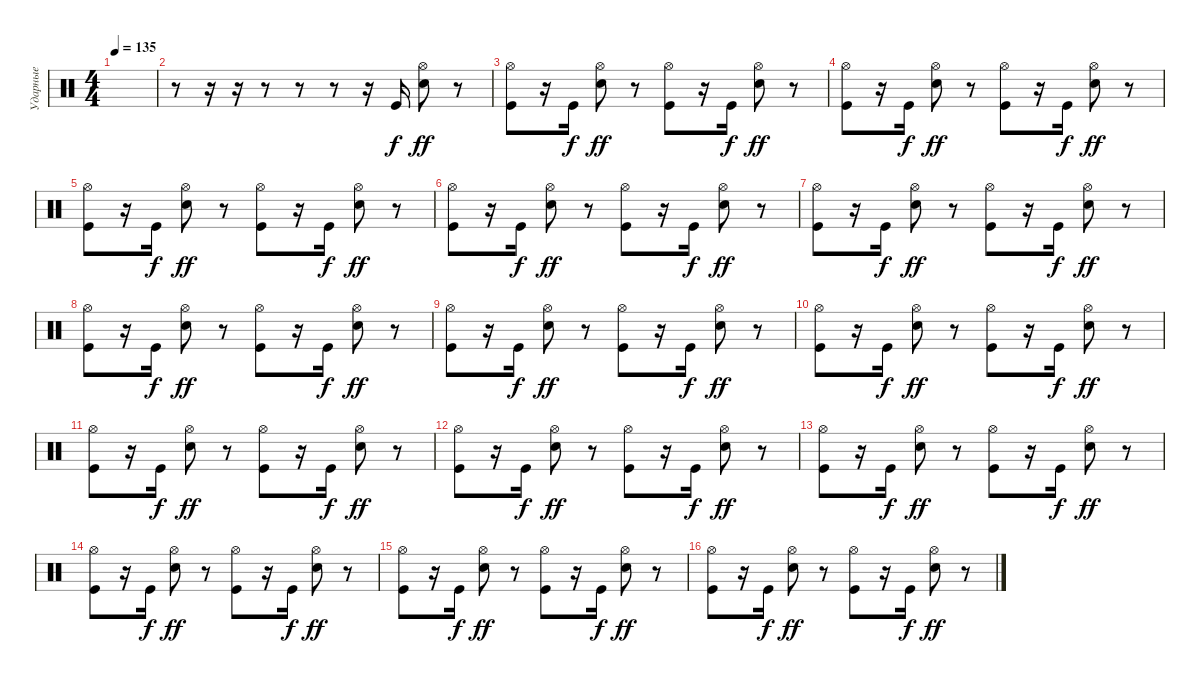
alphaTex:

\track ("Ударные" "Ударные") {instrument percussion}
\staff {score}
\articulation defaults
\ts (4 4)
\tempo 135
\clef neutral
\ks c
|
r.8 r.16 r.16 r.8 r.8 r.8 r.16 "Kick (hit)".16 ("Electric Snare (hit)" "Hi-Hat (open)").8{dy ff} r.8 |
("Kick (hit)" "Hi-Hat (open)").8 r.16 "Kick (hit)".16{dy f} ("Electric Snare (hit)" "Hi-Hat (open)").8{dy ff} r.8 ("Kick (hit)" "Hi-Hat (open)").8 r.16 "Kick (hit)".16{dy f} ("Electric Snare (hit)" "Hi-Hat (open)").8{dy ff} r.8 |
("Kick (hit)" "Hi-Hat (open)").8 r.16 "Kick (hit)".16{dy f} ("Electric Snare (hit)" "Hi-Hat (open)").8{dy ff} r.8 ("Kick (hit)" "Hi-Hat (open)").8 r.16 "Kick (hit)".16{dy f} ("Electric Snare (hit)" "Hi-Hat (open)").8{dy ff} r.8 |
("Kick (hit)" "Hi-Hat (open)").8 r.16 "Kick (hit)".16{dy f} ("Electric Snare (hit)" "Hi-Hat (open)").8{dy ff} r.8 ("Kick (hit)" "Hi-Hat (open)").8 r.16 "Kick (hit)".16{dy f} ("Electric Snare (hit)" "Hi-Hat (open)").8{dy ff} r.8 |
("Kick (hit)" "Hi-Hat (open)").8 r.16 "Kick (hit)".16{dy f} ("Electric Snare (hit)" "Hi-Hat (open)").8{dy ff} r.8 ("Kick (hit)" "Hi-Hat (open)").8 r.16 "Kick (hit)".16{dy f} ("Electric Snare (hit)" "Hi-Hat (open)").8{dy ff} r.8 |
("Kick (hit)" "Hi-Hat (open)").8 r.16 "Kick (hit)".16{dy f} ("Electric Snare (hit)" "Hi-Hat (open)").8{dy ff} r.8 ("Kick (hit)" "Hi-Hat (open)").8 r.16 "Kick (hit)".16{dy f} ("Electric Snare (hit)" "Hi-Hat (open)").8{dy ff} r.8 |
("Kick (hit)" "Hi-Hat (open)").8 r.16 "Kick (hit)".16{dy f} ("Electric Snare (hit)" "Hi-Hat (open)").8{dy ff} r.8 ("Kick (hit)" "Hi-Hat (open)").8 r.16 "Kick (hit)".16{dy f} ("Electric Snare (hit)" "Hi-Hat (open)").8{dy ff} r.8 |
("Kick (hit)" "Hi-Hat (open)").8 r.16 "Kick (hit)".16{dy f} ("Electric Snare (hit)" "Hi-Hat (open)").8{dy ff} r.8 ("Kick (hit)" "Hi-Hat (open)").8 r.16 "Kick (hit)".16{dy f} ("Electric Snare (hit)" "Hi-Hat (open)").8{dy ff} r.8 |
("Kick (hit)" "Hi-Hat (open)").8 r.16 "Kick (hit)".16{dy f} ("Electric Snare (hit)" "Hi-Hat (open)").8{dy ff} r.8 ("Kick (hit)" "Hi-Hat (open)").8 r.16 "Kick (hit)".16{dy f} ("Electric Snare (hit)" "Hi-Hat (open)").8{dy ff} r.8 |
("Kick (hit)" "Hi-Hat (open)").8 r.16 "Kick (hit)".16{dy f} ("Electric Snare (hit)" "Hi-Hat (open)").8{dy ff} r.8 ("Kick (hit)" "Hi-Hat (open)").8 r.16 "Kick (hit)".16{dy f} ("Electric Snare (hit)" "Hi-Hat (open)").8{dy ff} r.8 |
("Kick (hit)" "Hi-Hat (open)").8 r.16 "Kick (hit)".16{dy f} ("Electric Snare (hit)" "Hi-Hat (open)").8{dy ff} r.8 ("Kick (hit)" "Hi-Hat (open)").8 r.16 "Kick (hit)".16{dy f} ("Electric Snare (hit)" "Hi-Hat (open)").8{dy ff} r.8 |
("Kick (hit)" "Hi-Hat (open)").8 r.16 "Kick (hit)".16{dy f} ("Electric Snare (hit)" "Hi-Hat (open)").8{dy ff} r.8 ("Kick (hit)" "Hi-Hat (open)").8 r.16 "Kick (hit)".16{dy f} ("Electric Snare (hit)" "Hi-Hat (open)").8{dy ff} r.8 |
("Kick (hit)" "Hi-Hat (open)").8 r.16 "Kick (hit)".16{dy f} ("Electric Snare (hit)" "Hi-Hat (open)").8{dy ff} r.8 ("Kick (hit)" "Hi-Hat (open)").8 r.16 "Kick (hit)".16{dy f} ("Electric Snare (hit)" "Hi-Hat (open)").8{dy ff} r.8 |
("Kick (hit)" "Hi-Hat (open)").8 r.16 "Kick (hit)".16{dy f} ("Electric Snare (hit)" "Hi-Hat (open)").8{dy ff} r.8 ("Kick (hit)" "Hi-Hat (open)").8 r.16 "Kick (hit)".16{dy f} ("Electric Snare (hit)" "Hi-Hat (open)").8{dy ff} r.8 |
("Kick (hit)" "Hi-Hat (open)").8 r.16 "Kick (hit)".16{dy f} ("Electric Snare (hit)" "Hi-Hat (open)").8{dy ff} r.8 ("Kick (hit)" "Hi-Hat (open)").8 r.16 "Kick (hit)".16{dy f} ("Electric Snare (hit)" "Hi-Hat (open)").8{dy ff} r.8
